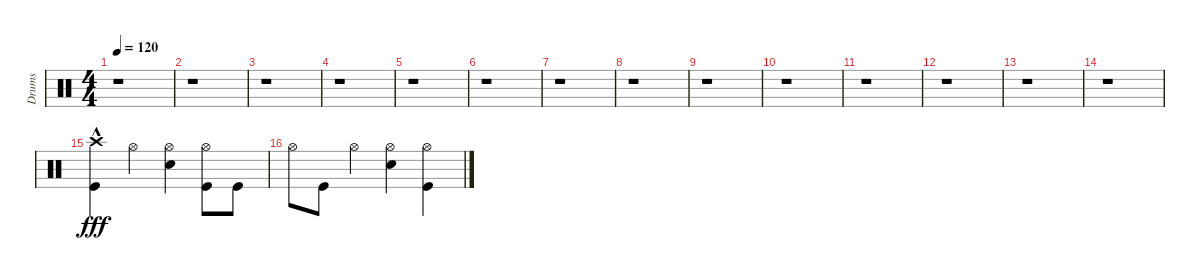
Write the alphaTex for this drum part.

\track ("Drums" "Drums") {instrument percussion}
\staff {score}
\articulation defaults
\ts (4 4)
\tempo 120
\clef neutral
\ks c
r.1{dy fff} |
r.1 |
r.1 |
r.1 |
r.1 |
r.1 |
r.1 |
r.1 |
r.1 |
r.1 |
r.1 |
r.1 |
r.1 |
r.1 |
("Kick (hit)"{hac} "Crash high (hit)").4 "Hi-Hat (open)".4 ("Snare (hit) 2" "Hi-Hat (open)").4 ("Kick (hit)" "Hi-Hat (open)").8 "Kick (hit)".8 |
"Hi-Hat (open)".8 "Kick (hit)".8 "Hi-Hat (open)".4 ("Snare (hit) 2" "Hi-Hat (open)").4 ("Kick (hit)" "Hi-Hat (open)").4
